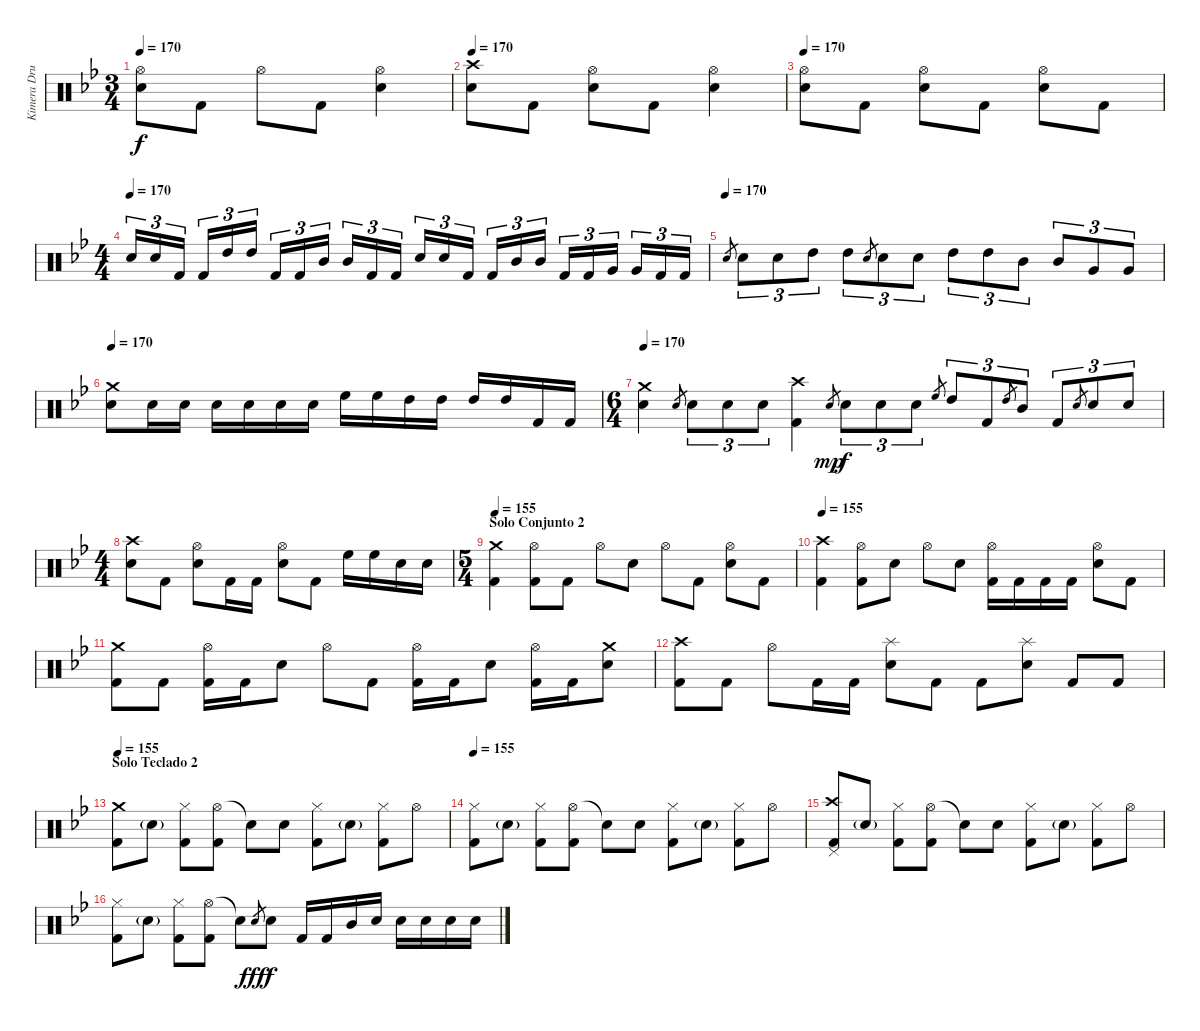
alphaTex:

\track ("Kimera Drummer" "Kimera Dru") {instrument percussion}
\staff {score}
\articulation defaults
\ts (3 4)
\tempo 170
\clef neutral
\ks gminor
("Hi-Hat (open)" "Electric Snare (hit)").8{dy f} "Kick (hit) 2".8 "Hi-Hat (open)".8 "Kick (hit) 2".8 ("Hi-Hat (open)" "Electric Snare (hit)").4 |
\tempo 170
("Crash high (hit)" "Electric Snare (hit)").8 "Kick (hit) 2".8 ("Hi-Hat (open)" "Electric Snare (hit)").8 "Kick (hit) 2".8 ("Hi-Hat (open)" "Electric Snare (hit)").4 |
\tempo 170
("Hi-Hat (open)" "Electric Snare (hit)").8 "Kick (hit) 2".8 ("Hi-Hat (open)" "Electric Snare (hit)").8 "Kick (hit) 2".8 ("Hi-Hat (open)" "Electric Snare (hit)").8 "Kick (hit) 2".8 |
\ts (4 4)
\tempo (170)
"Electric Snare (hit)".16{tu (3 2)} "Electric Snare (hit)".16{tu (3 2)} "Kick (hit) 2".16{tu (3 2)} "Kick (hit) 2".16{tu (3 2)} "High Tom (hit)".16{tu (3 2)} "High Tom (hit)".16{tu (3 2)} "Kick (hit) 2".16{tu (3 2)} "Kick (hit) 2".16{tu (3 2)} "Mid Tom (hit)".16{tu (3 2)} "Mid Tom (hit)".16{tu (3 2)} "Kick (hit) 2".16{tu (3 2)} "Kick (hit) 2".16{tu (3 2)} "Electric Snare (hit)".16{tu (3 2)} "Electric Snare (hit)".16{tu (3 2)} "Kick (hit) 2".16{tu (3 2)} "Kick (hit) 2".16{tu (3 2)} "Mid Tom (hit)".16{tu (3 2)} "Mid Tom (hit)".16{tu (3 2)} "Kick (hit) 2".16{tu (3 2)} "Kick (hit) 2".16{tu (3 2)} "Very Low Tom (hit)".16{tu (3 2)} "Very Low Tom (hit)".16{tu (3 2)} "Kick (hit) 2".16{tu (3 2)} "Kick (hit) 2".16{tu (3 2)} |
\tempo (170)
"Electric Snare (hit)".8{gr} "Electric Snare (hit)".8{tu (3 2)} "Electric Snare (hit)".8{tu (3 2)} "High Tom (hit)".8{tu (3 2)} "High Tom (hit)".8{tu (3 2)} "Electric Snare (hit)".8{gr} "Electric Snare (hit)".8{tu (3 2)} "Electric Snare (hit)".8{tu (3 2)} "High Tom (hit)".8{tu (3 2)} "High Tom (hit)".8{tu (3 2)} "Mid Tom (hit)".8{tu (3 2)} "Mid Tom (hit)".8{tu (3 2)} "Very Low Tom (hit)".8{tu (3 2)} "Very Low Tom (hit)".8{tu (3 2)} |
\tempo 170
("Crash medium (hit)" "Electric Snare (hit)").8 "Electric Snare (hit)".16 "Electric Snare (hit)".16 "Electric Snare (hit)".16 "Electric Snare (hit)".16 "Electric Snare (hit)".16 "Electric Snare (hit)".16 "High Floor Tom (hit)".16 "High Floor Tom (hit)".16 "High Tom (hit)".16 "High Tom (hit)".16 "High Tom (hit)".16 "High Tom (hit)".16 "Kick (hit) 2".16 "Kick (hit) 2".16 |
\ts (6 4)
\tempo 170
("Crash medium (hit)" "Electric Snare (hit)").4 "Electric Snare (hit)".8{gr} "Electric Snare (hit)".8{tu (3 2)} "Electric Snare (hit)".8{tu (3 2)} "Electric Snare (hit)".8{tu (3 2)} ("Crash high (hit)" "Kick (hit) 2").4 "Electric Snare (hit)".8{gr dy mp} "Electric Snare (hit)".8{tu (3 2) dy f} "Electric Snare (hit)".8{tu (3 2)} "Electric Snare (hit)".8{tu (3 2)} "High Floor Tom (hit)".8{gr} "High Tom (hit)".8{tu (3 2)} "Kick (hit) 2".8{tu (3 2)} "High Tom (hit)".8{gr} "Mid Tom (hit)".8{tu (3 2)} "Kick (hit) 2".8{tu (3 2)} "Electric Snare (hit)".8{gr} "Electric Snare (hit)".8{tu (3 2)} "Electric Snare (hit)".8{tu (3 2)} |
\ts (4 4)
("Crash high (hit)" "Electric Snare (hit)").8 "Kick (hit) 2".8 ("Hi-Hat (open)" "Electric Snare (hit)").8 "Kick (hit) 2".16 "Kick (hit) 2".16 ("Hi-Hat (open)" "Electric Snare (hit)").8 "Kick (hit) 2".8 "High Floor Tom (hit)".16 "High Floor Tom (hit)".16 "Electric Snare (hit)".16 "Electric Snare (hit)".16 |
\ts (5 4)
\section ("" "Solo Conjunto 2")
\tempo 155
("Crash medium (hit)" "Kick (hit) 2").4 ("Hi-Hat (open)" "Kick (hit) 2").8 "Kick (hit) 2".8 "Hi-Hat (open)".8 "Electric Snare (hit)".8 "Hi-Hat (open)".8 "Kick (hit) 2".8 ("Hi-Hat (open)" "Electric Snare (hit)").8 "Kick (hit) 2".8 |
\tempo 155
("Crash high (hit)" "Kick (hit) 2").4 ("Hi-Hat (open)" "Kick (hit) 2").8 "Electric Snare (hit)".8 "Hi-Hat (open)".8 "Electric Snare (hit)".8 ("Hi-Hat (open)" "Kick (hit) 2").16 "Kick (hit) 2".16 "Kick (hit) 2".16 "Kick (hit) 2".16 ("Hi-Hat (open)" "Electric Snare (hit)").8 "Kick (hit) 2".8 |
("Crash medium (hit)" "Kick (hit) 2").8 "Kick (hit) 2".8 ("Hi-Hat (open)" "Kick (hit) 2").16 "Kick (hit) 2".16 "Electric Snare (hit)".8 "Hi-Hat (open)".8 "Kick (hit) 2".8 ("Hi-Hat (open)" "Kick (hit) 2").16 "Kick (hit) 2".16 "Electric Snare (hit)".8 ("Hi-Hat (open)" "Kick (hit) 2").16 "Kick (hit) 2".16 ("Crash medium (hit)" "Electric Snare (hit)").8 |
("Crash high (hit)" "Kick (hit) 2").8 "Kick (hit) 2".8 "Hi-Hat (open)".8 "Kick (hit) 2".16 "Kick (hit) 2".16 ("Splash (hit)" "Electric Snare (hit)").8 "Kick (hit) 2".8 "Kick (hit) 2".8 ("Splash (hit)" "Electric Snare (hit)").8 "Kick (hit) 2".8 "Kick (hit) 2".8 |
\section ("" "Solo Teclado 2")
\tempo 155
("Crash medium (hit)" "Kick (hit) 2").8 "Electric Snare (hit)"{g}.8 ("Hi-Hat (closed)" "Kick (hit) 2").8 ("Hi-Hat (open)" "Kick (hit) 2").8 "Snare (hit)"{t}.8 "Electric Snare (hit)".8 ("Hi-Hat (closed)" "Kick (hit) 2").8 "Electric Snare (hit)"{g}.8 ("Hi-Hat (closed)" "Kick (hit) 2").8 "Hi-Hat (open)".8 |
\tempo 155
("Hi-Hat (closed)" "Kick (hit) 2").8 "Electric Snare (hit)"{g}.8 ("Hi-Hat (closed)" "Kick (hit) 2").8 ("Hi-Hat (open)" "Kick (hit) 2").8 "Snare (hit)"{t}.8 "Electric Snare (hit)".8 ("Hi-Hat (closed)" "Kick (hit) 2").8 "Electric Snare (hit)"{g}.8 ("Hi-Hat (closed)" "Kick (hit) 2").8 "Hi-Hat (open)".8 |
("Crash high (hit)" "Pedal Hi-Hat (hit)" "Kick (hit) 2").8 "Electric Snare (hit)"{g}.8 ("Hi-Hat (closed)" "Kick (hit) 2").8 ("Hi-Hat (open)" "Kick (hit) 2").8 "Snare (hit)"{t}.8 "Electric Snare (hit)".8 ("Hi-Hat (closed)" "Kick (hit) 2").8 "Electric Snare (hit)"{g}.8 ("Hi-Hat (closed)" "Kick (hit) 2").8 "Hi-Hat (open)".8 |
("Hi-Hat (closed)" "Kick (hit) 2").8 "Electric Snare (hit)"{g}.8 ("Hi-Hat (closed)" "Kick (hit) 2").8 ("Hi-Hat (open)" "Kick (hit) 2").8 "Snare (hit)"{t}.8 "Electric Snare (hit)".8{gr dy fff} "Electric Snare (hit)".8{dy f} "Kick (hit) 2".16 "Kick (hit) 2".16 "Mid Tom (hit)".16 "Electric Snare (hit)".16 "Electric Snare (hit)".16 "Electric Snare (hit)".16 "Electric Snare (hit)".16 "Electric Snare (hit)".16
